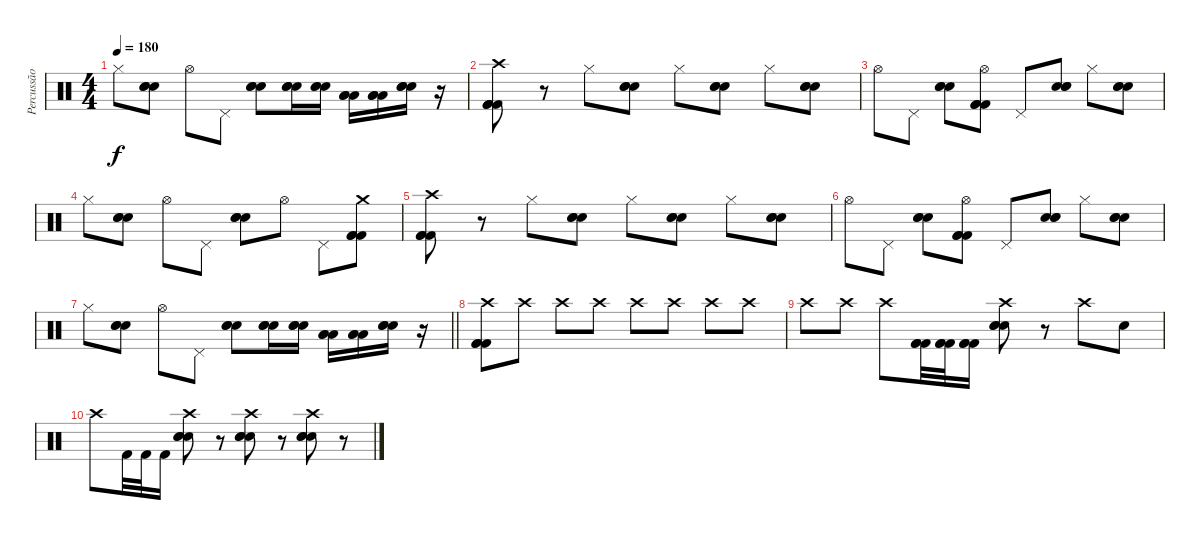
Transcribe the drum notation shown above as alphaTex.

\track ("Percussão" "Percussão") {instrument percussion}
\staff {score}
\articulation defaults
\ts (4 4)
\tempo 180
\clef neutral
\ks c "Hi-Hat (closed)".8{dy f}
("Electric Snare (hit)" "Electric Snare (hit)" "Electric Snare (hit)").8 "Hi-Hat (open)".8 "Pedal Hi-Hat (hit)".8 ("Electric Snare (hit)" "Electric Snare (hit)" "Electric Snare (hit)").8 ("Electric Snare (hit)" "Electric Snare (hit)" "Electric Snare (hit)").16 ("Electric Snare (hit)" "Electric Snare (hit)" "Electric Snare (hit)").16 ("Low Tom (hit)" "Low Tom (hit)" "Low Tom (hit)").16 ("Low Tom (hit)" "Low Tom (hit)" "Low Tom (hit)").16 ("Electric Snare (hit)" "Electric Snare (hit)" "Electric Snare (hit)").16 r.16 |
("Crash high (hit)" "Kick (hit) 2" "Kick (hit) 2" "Kick (hit) 2").8 r.8 "Hi-Hat (closed)".8 ("Electric Snare (hit)" "Electric Snare (hit)" "Electric Snare (hit)").8 "Hi-Hat (closed)".8 ("Electric Snare (hit)" "Electric Snare (hit)" "Electric Snare (hit)").8 "Hi-Hat (closed)".8 ("Electric Snare (hit)" "Electric Snare (hit)" "Electric Snare (hit)").8 |
"Hi-Hat (open)".8 "Pedal Hi-Hat (hit)".8 ("Electric Snare (hit)" "Electric Snare (hit)" "Electric Snare (hit)").8 ("Hi-Hat (open)" "Kick (hit) 2" "Kick (hit) 2" "Kick (hit) 2").8 "Pedal Hi-Hat (hit)".8 ("Electric Snare (hit)" "Electric Snare (hit)" "Electric Snare (hit)").8 "Hi-Hat (closed)".8 ("Electric Snare (hit)" "Electric Snare (hit)" "Electric Snare (hit)").8 |
"Hi-Hat (closed)".8 ("Electric Snare (hit)" "Electric Snare (hit)" "Electric Snare (hit)").8 "Hi-Hat (open)".8 "Pedal Hi-Hat (hit)".8 ("Electric Snare (hit)" "Electric Snare (hit)" "Electric Snare (hit)").8 "Hi-Hat (open)".8 "Pedal Hi-Hat (hit)".8 ("Crash medium (hit)" "Kick (hit) 2" "Kick (hit) 2" "Kick (hit) 2").8 |
("Crash high (hit)" "Kick (hit) 2" "Kick (hit) 2" "Kick (hit) 2").8 r.8 "Hi-Hat (closed)".8 ("Electric Snare (hit)" "Electric Snare (hit)" "Electric Snare (hit)").8 "Hi-Hat (closed)".8 ("Electric Snare (hit)" "Electric Snare (hit)" "Electric Snare (hit)").8 "Hi-Hat (closed)".8 ("Electric Snare (hit)" "Electric Snare (hit)" "Electric Snare (hit)").8 |
"Hi-Hat (open)".8 "Pedal Hi-Hat (hit)".8 ("Electric Snare (hit)" "Electric Snare (hit)" "Electric Snare (hit)").8 ("Hi-Hat (open)" "Kick (hit) 2" "Kick (hit) 2" "Kick (hit) 2").8 "Pedal Hi-Hat (hit)".8 ("Electric Snare (hit)" "Electric Snare (hit)" "Electric Snare (hit)").8 "Hi-Hat (closed)".8 ("Electric Snare (hit)" "Electric Snare (hit)" "Electric Snare (hit)").8 |
\barLineRight lightlight "Hi-Hat (closed)".8
("Electric Snare (hit)" "Electric Snare (hit)" "Electric Snare (hit)").8 "Hi-Hat (open)".8 "Pedal Hi-Hat (hit)".8 ("Electric Snare (hit)" "Electric Snare (hit)" "Electric Snare (hit)").8 ("Electric Snare (hit)" "Electric Snare (hit)" "Electric Snare (hit)").16 ("Electric Snare (hit)" "Electric Snare (hit)" "Electric Snare (hit)").16 ("Low Tom (hit)" "Low Tom (hit)" "Low Tom (hit)").16 ("Low Tom (hit)" "Low Tom (hit)" "Low Tom (hit)").16 ("Electric Snare (hit)" "Electric Snare (hit)" "Electric Snare (hit)").16 r.16 |
\section ("" "")
("Crash high (hit)" "Kick (hit) 2" "Kick (hit) 2" "Kick (hit) 2").8 "Crash high (hit)".8 "Crash high (hit)".8 "Crash high (hit)".8 "Crash high (hit)".8 "Crash high (hit)".8 "Crash high (hit)".8 "Crash high (hit)".8 |
"Crash high (hit)".8 "Crash high (hit)".8 "Crash high (hit)".8 ("Kick (hit) 2" "Kick (hit) 2" "Kick (hit) 2").32 ("Kick (hit) 2" "Kick (hit) 2" "Kick (hit) 2").32 ("Kick (hit) 2" "Kick (hit) 2" "Kick (hit) 2").16 ("Crash high (hit)" "Electric Snare (hit)" "Electric Snare (hit)" "Electric Snare (hit)").8 r.8 "Crash high (hit)".8 "Electric Snare (hit)".8 |
"Crash high (hit)".8 "Kick (hit) 2".32 "Kick (hit) 2".32 "Kick (hit) 2".16 ("Crash high (hit)" "Electric Snare (hit)" "Electric Snare (hit)" "Electric Snare (hit)").8 r.8 ("Crash high (hit)" "Electric Snare (hit)" "Electric Snare (hit)" "Electric Snare (hit)").8 r.8 ("Crash high (hit)" "Electric Snare (hit)" "Electric Snare (hit)" "Electric Snare (hit)").8 r.8
